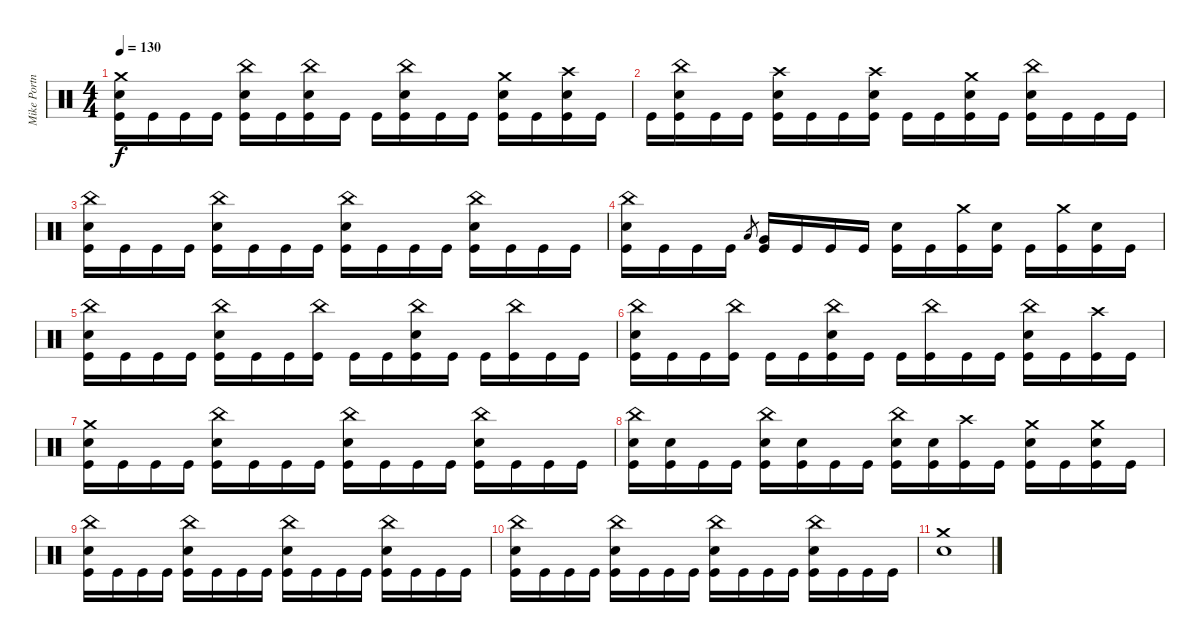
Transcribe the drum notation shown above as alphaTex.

\track ("Mike Portnoy" "Mike Portn") {instrument percussion}
\staff {score}
\articulation defaults
\ts (4 4)
\tempo 130
\clef neutral
\ks c
("Crash medium (hit)" "Electric Snare (hit)" "Kick (hit)").16{dy f} "Kick (hit)".16 "Kick (hit)".16 "Kick (hit)".16 ("China (hit)" "Electric Snare (hit)" "Kick (hit)").16 "Kick (hit)".16 ("China (hit)" "Electric Snare (hit)" "Kick (hit)").16 "Kick (hit)".16 "Kick (hit)".16 ("China (hit)" "Electric Snare (hit)" "Kick (hit)").16 "Kick (hit)".16 "Kick (hit)".16 ("Crash medium (hit)" "Electric Snare (hit)" "Kick (hit)").16 "Kick (hit)".16 ("Crash high (hit)" "Electric Snare (hit)" "Kick (hit)").16 "Kick (hit)".16 |
"Kick (hit)".16 ("China (hit)" "Electric Snare (hit)" "Kick (hit)").16 "Kick (hit)".16 "Kick (hit)".16 ("Crash high (hit)" "Electric Snare (hit)" "Kick (hit)").16 "Kick (hit)".16 "Kick (hit)".16 ("Crash high (hit)" "Electric Snare (hit)" "Kick (hit)").16 "Kick (hit)".16 "Kick (hit)".16 ("Crash medium (hit)" "Electric Snare (hit)" "Kick (hit)").16 "Kick (hit)".16 ("China (hit)" "Electric Snare (hit)" "Kick (hit)").16 "Kick (hit)".16 "Kick (hit)".16 "Kick (hit)".16 |
("China (hit)" "Electric Snare (hit)" "Kick (hit)").16 "Kick (hit)".16 "Kick (hit)".16 "Kick (hit)".16 ("China (hit)" "Electric Snare (hit)" "Kick (hit)").16 "Kick (hit)".16 "Kick (hit)".16 "Kick (hit)".16 ("China (hit)" "Electric Snare (hit)" "Kick (hit)").16 "Kick (hit)".16 "Kick (hit)".16 "Kick (hit)".16 ("China (hit)" "Electric Snare (hit)" "Kick (hit)").16 "Kick (hit)".16 "Kick (hit)".16 "Kick (hit)".16 |
("China (hit)" "Electric Snare (hit)" "Kick (hit)").16 "Kick (hit)".16 "Kick (hit)".16 "Kick (hit)".16 "Low Floor Tom (hit)".8{gr} ("Very Low Tom (hit)" "Kick (hit)").16 "Kick (hit)".16 "Kick (hit)".16 "Kick (hit)".16 ("Electric Snare (hit)" "Kick (hit)").16 "Kick (hit)".16 ("Crash medium (hit)" "Kick (hit)").16 ("Electric Snare (hit)" "Kick (hit)").16 "Kick (hit)".16 ("Crash medium (hit)" "Kick (hit)").16 ("Electric Snare (hit)" "Kick (hit)").16 "Kick (hit)".16 |
("China (hit)" "Electric Snare (hit)" "Kick (hit)").16 "Kick (hit)".16 "Kick (hit)".16 "Kick (hit)".16 ("China (hit)" "Electric Snare (hit)" "Kick (hit)").16 "Kick (hit)".16 "Kick (hit)".16 ("China (hit)" "Kick (hit)").16 "Kick (hit)".16 "Kick (hit)".16 ("China (hit)" "Electric Snare (hit)" "Kick (hit)").16 "Kick (hit)".16 "Kick (hit)".16 ("China (hit)" "Kick (hit)").16 "Kick (hit)".16 "Kick (hit)".16 |
("China (hit)" "Electric Snare (hit)" "Kick (hit)").16 "Kick (hit)".16 "Kick (hit)".16 ("China (hit)" "Kick (hit)").16 "Kick (hit)".16 "Kick (hit)".16 ("China (hit)" "Electric Snare (hit)" "Kick (hit)").16 "Kick (hit)".16 "Kick (hit)".16 ("China (hit)" "Kick (hit)").16 "Kick (hit)".16 "Kick (hit)".16 ("China (hit)" "Electric Snare (hit)" "Kick (hit)").16 "Kick (hit)".16 ("Crash high (hit)" "Kick (hit)").16 "Kick (hit)".16 |
("Crash medium (hit)" "Electric Snare (hit)" "Kick (hit)").16 "Kick (hit)".16 "Kick (hit)".16 "Kick (hit)".16 ("China (hit)" "Electric Snare (hit)" "Kick (hit)").16 "Kick (hit)".16 "Kick (hit)".16 "Kick (hit)".16 ("China (hit)" "Electric Snare (hit)" "Kick (hit)").16 "Kick (hit)".16 "Kick (hit)".16 "Kick (hit)".16 ("China (hit)" "Electric Snare (hit)" "Kick (hit)").16 "Kick (hit)".16 "Kick (hit)".16 "Kick (hit)".16 |
("China (hit)" "Electric Snare (hit)" "Kick (hit)").16 ("Electric Snare (hit)" "Kick (hit)").16 "Kick (hit)".16 "Kick (hit)".16 ("China (hit)" "Electric Snare (hit)" "Kick (hit)").16 ("Electric Snare (hit)" "Kick (hit)").16 "Kick (hit)".16 "Kick (hit)".16 ("China (hit)" "Electric Snare (hit)" "Kick (hit)").16 ("Electric Snare (hit)" "Kick (hit)").16 ("Crash high (hit)" "Kick (hit)").16 "Kick (hit)".16 ("Crash medium (hit)" "Electric Snare (hit)" "Kick (hit)").16 "Kick (hit)".16 ("Crash medium (hit)" "Electric Snare (hit)" "Kick (hit)").16 "Kick (hit)".16 |
("China (hit)" "Electric Snare (hit)" "Kick (hit)").16 "Kick (hit)".16 "Kick (hit)".16 "Kick (hit)".16 ("China (hit)" "Electric Snare (hit)" "Kick (hit)").16 "Kick (hit)".16 "Kick (hit)".16 "Kick (hit)".16 ("China (hit)" "Electric Snare (hit)" "Kick (hit)").16 "Kick (hit)".16 "Kick (hit)".16 "Kick (hit)".16 ("China (hit)" "Electric Snare (hit)" "Kick (hit)").16 "Kick (hit)".16 "Kick (hit)".16 "Kick (hit)".16 |
("China (hit)" "Electric Snare (hit)" "Kick (hit)").16 "Kick (hit)".16 "Kick (hit)".16 "Kick (hit)".16 ("China (hit)" "Electric Snare (hit)" "Kick (hit)").16 "Kick (hit)".16 "Kick (hit)".16 "Kick (hit)".16 ("China (hit)" "Electric Snare (hit)" "Kick (hit)").16 "Kick (hit)".16 "Kick (hit)".16 "Kick (hit)".16 ("China (hit)" "Electric Snare (hit)" "Kick (hit)").16 "Kick (hit)".16 "Kick (hit)".16 "Kick (hit)".16 |
("Crash medium (hit)" "Electric Snare (hit)").1
